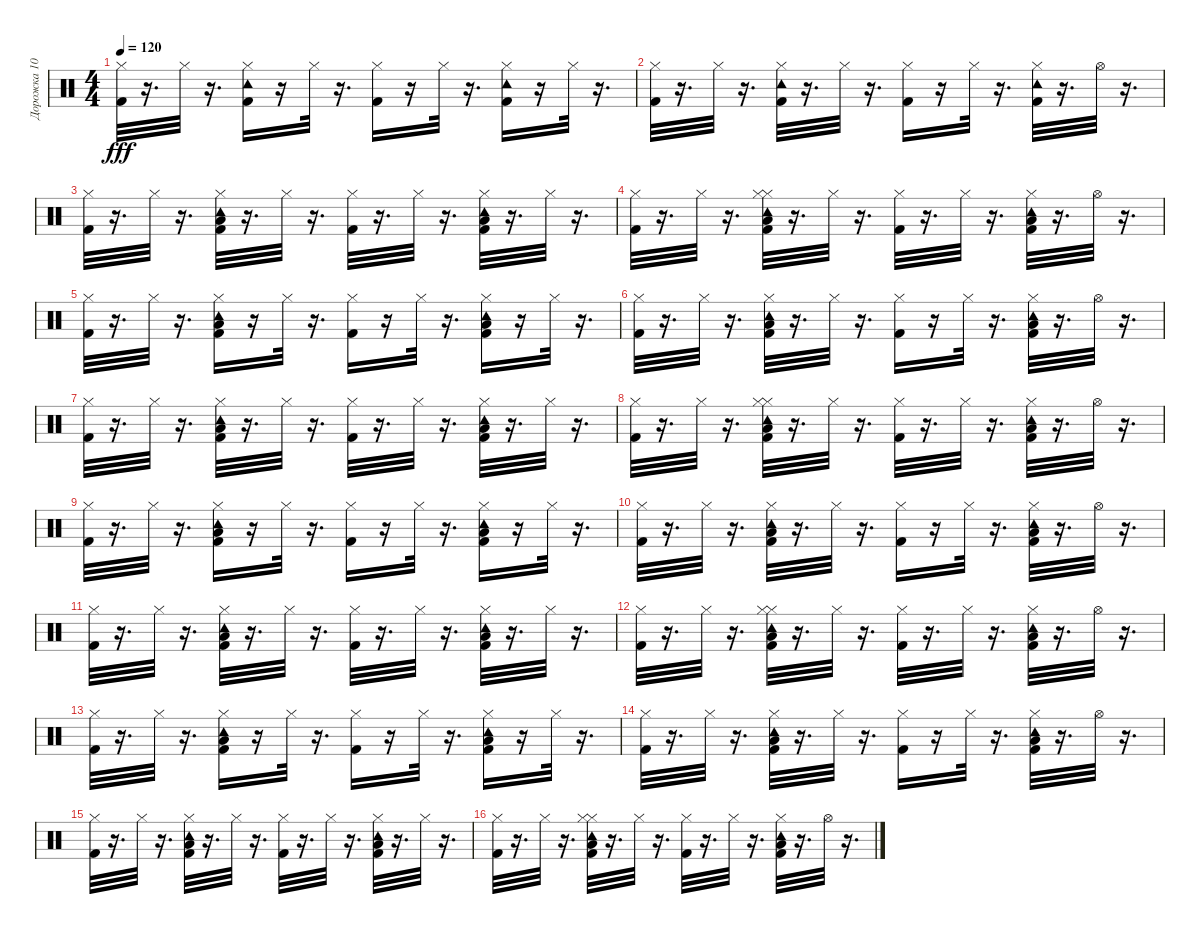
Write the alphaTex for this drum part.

\track ("Дорожка 10" "Дорожка 10") {instrument percussion}
\staff {score}
\articulation defaults
\ts (4 4)
\tempo 120
\clef neutral
\ks c
("Kick (hit) 2" "Hi-Hat (closed)").32{dy fff} r.16{d} "Hi-Hat (closed)".32 r.16{d} ("Tambourine (hit)" "Kick (hit) 2" "Hi-Hat (closed)").16 r.16 "Hi-Hat (closed)".32 r.16{d} ("Kick (hit) 2" "Hi-Hat (closed)").16 r.16 "Hi-Hat (closed)".32 r.16{d} ("Kick (hit) 2" "Hi-Hat (closed)" "Tambourine (hit)").16 r.16 "Hi-Hat (closed)".32 r.16{d} |
("Kick (hit) 2" "Hi-Hat (closed)").32 r.16{d} "Hi-Hat (closed)".32 r.16{d} ("Tambourine (hit)" "Kick (hit) 2" "Hi-Hat (closed)").32 r.16{d} "Hi-Hat (closed)".32 r.16{d} ("Kick (hit) 2" "Hi-Hat (closed)").16 r.16 "Hi-Hat (closed)".32 r.16{d} ("Tambourine (hit)" "Kick (hit) 2" "Hi-Hat (closed)").32 r.16{d} "Hi-Hat (open)".32 r.16{d} |
("Kick (hit) 2" "Hi-Hat (closed)").32 r.16{d} "Hi-Hat (closed)".32 r.16{d} ("Tambourine (hit)" "Kick (hit) 2" "Hi-Hat (closed)" "Low Floor Tom (hit)").32 r.16{d} "Hi-Hat (closed)".32 r.16{d} ("Kick (hit) 2" "Hi-Hat (closed)").32 r.16{d} "Hi-Hat (closed)".32 r.16{d} ("Tambourine (hit)" "Kick (hit) 2" "Hi-Hat (closed)" "Low Floor Tom (hit)").32 r.16{d} "Hi-Hat (closed)".32 r.16{d} |
("Kick (hit) 2" "Hi-Hat (closed)").32 r.16{d} "Hi-Hat (closed)".32 r.16{d} ("Low Floor Tom (hit)" "Tambourine (hit)" "Kick (hit) 2" "Hi-Hat (closed)" "Hi-Hat (closed)").32 r.16{d} "Hi-Hat (closed)".32 r.16{d} ("Kick (hit) 2" "Hi-Hat (closed)").32 r.16{d} "Hi-Hat (closed)".32 r.16{d} ("Low Floor Tom (hit)" "Tambourine (hit)" "Kick (hit) 2" "Hi-Hat (closed)").32 r.16{d} "Hi-Hat (open)".32 r.16{d} |
("Kick (hit) 2" "Hi-Hat (closed)").32 r.16{d} "Hi-Hat (closed)".32 r.16{d} ("Low Floor Tom (hit)" "Tambourine (hit)" "Kick (hit) 2" "Hi-Hat (closed)").16 r.16 "Hi-Hat (closed)".32 r.16{d} ("Kick (hit) 2" "Hi-Hat (closed)").16 r.16 "Hi-Hat (closed)".32 r.16{d} ("Low Floor Tom (hit)" "Tambourine (hit)" "Kick (hit) 2" "Hi-Hat (closed)").16 r.16 "Hi-Hat (closed)".32 r.16{d} |
("Kick (hit) 2" "Hi-Hat (closed)").32 r.16{d} "Hi-Hat (closed)".32 r.16{d} ("Low Floor Tom (hit)" "Tambourine (hit)" "Kick (hit) 2" "Hi-Hat (closed)").32 r.16{d} "Hi-Hat (closed)".32 r.16{d} ("Kick (hit) 2" "Hi-Hat (closed)").16 r.16 "Hi-Hat (closed)".32 r.16{d} ("Tambourine (hit)" "Kick (hit) 2" "Hi-Hat (closed)" "Low Floor Tom (hit)").32 r.16{d} "Hi-Hat (open)".32 r.16{d} |
("Kick (hit) 2" "Hi-Hat (closed)").32 r.16{d} "Hi-Hat (closed)".32 r.16{d} ("Tambourine (hit)" "Kick (hit) 2" "Hi-Hat (closed)" "Low Floor Tom (hit)").32 r.16{d} "Hi-Hat (closed)".32 r.16{d} ("Kick (hit) 2" "Hi-Hat (closed)").32 r.16{d} "Hi-Hat (closed)".32 r.16{d} ("Tambourine (hit)" "Kick (hit) 2" "Hi-Hat (closed)" "Low Floor Tom (hit)").32 r.16{d} "Hi-Hat (closed)".32 r.16{d} |
("Kick (hit) 2" "Hi-Hat (closed)").32 r.16{d} "Hi-Hat (closed)".32 r.16{d} ("Low Floor Tom (hit)" "Tambourine (hit)" "Kick (hit) 2" "Hi-Hat (closed)" "Hi-Hat (closed)").32 r.16{d} "Hi-Hat (closed)".32 r.16{d} ("Kick (hit) 2" "Hi-Hat (closed)").32 r.16{d} "Hi-Hat (closed)".32 r.16{d} ("Low Floor Tom (hit)" "Tambourine (hit)" "Kick (hit) 2" "Hi-Hat (closed)").32 r.16{d} "Hi-Hat (open)".32 r.16{d} |
("Kick (hit) 2" "Hi-Hat (closed)").32 r.16{d} "Hi-Hat (closed)".32 r.16{d} ("Low Floor Tom (hit)" "Tambourine (hit)" "Kick (hit) 2" "Hi-Hat (closed)").16 r.16 "Hi-Hat (closed)".32 r.16{d} ("Kick (hit) 2" "Hi-Hat (closed)").16 r.16 "Hi-Hat (closed)".32 r.16{d} ("Low Floor Tom (hit)" "Tambourine (hit)" "Kick (hit) 2" "Hi-Hat (closed)").16 r.16 "Hi-Hat (closed)".32 r.16{d} |
("Kick (hit) 2" "Hi-Hat (closed)").32 r.16{d} "Hi-Hat (closed)".32 r.16{d} ("Low Floor Tom (hit)" "Tambourine (hit)" "Kick (hit) 2" "Hi-Hat (closed)").32 r.16{d} "Hi-Hat (closed)".32 r.16{d} ("Kick (hit) 2" "Hi-Hat (closed)").16 r.16 "Hi-Hat (closed)".32 r.16{d} ("Tambourine (hit)" "Kick (hit) 2" "Hi-Hat (closed)" "Low Floor Tom (hit)").32 r.16{d} "Hi-Hat (open)".32 r.16{d} |
("Kick (hit) 2" "Hi-Hat (closed)").32 r.16{d} "Hi-Hat (closed)".32 r.16{d} ("Tambourine (hit)" "Kick (hit) 2" "Hi-Hat (closed)" "Low Floor Tom (hit)").32 r.16{d} "Hi-Hat (closed)".32 r.16{d} ("Kick (hit) 2" "Hi-Hat (closed)").32 r.16{d} "Hi-Hat (closed)".32 r.16{d} ("Tambourine (hit)" "Kick (hit) 2" "Hi-Hat (closed)" "Low Floor Tom (hit)").32 r.16{d} "Hi-Hat (closed)".32 r.16{d} |
("Kick (hit) 2" "Hi-Hat (closed)").32 r.16{d} "Hi-Hat (closed)".32 r.16{d} ("Low Floor Tom (hit)" "Tambourine (hit)" "Kick (hit) 2" "Hi-Hat (closed)" "Hi-Hat (closed)").32 r.16{d} "Hi-Hat (closed)".32 r.16{d} ("Kick (hit) 2" "Hi-Hat (closed)").32 r.16{d} "Hi-Hat (closed)".32 r.16{d} ("Low Floor Tom (hit)" "Tambourine (hit)" "Kick (hit) 2" "Hi-Hat (closed)").32 r.16{d} "Hi-Hat (open)".32 r.16{d} |
("Kick (hit) 2" "Hi-Hat (closed)").32 r.16{d} "Hi-Hat (closed)".32 r.16{d} ("Low Floor Tom (hit)" "Tambourine (hit)" "Kick (hit) 2" "Hi-Hat (closed)").16 r.16 "Hi-Hat (closed)".32 r.16{d} ("Kick (hit) 2" "Hi-Hat (closed)").16 r.16 "Hi-Hat (closed)".32 r.16{d} ("Low Floor Tom (hit)" "Tambourine (hit)" "Kick (hit) 2" "Hi-Hat (closed)").16 r.16 "Hi-Hat (closed)".32 r.16{d} |
("Kick (hit) 2" "Hi-Hat (closed)").32 r.16{d} "Hi-Hat (closed)".32 r.16{d} ("Low Floor Tom (hit)" "Tambourine (hit)" "Kick (hit) 2" "Hi-Hat (closed)").32 r.16{d} "Hi-Hat (closed)".32 r.16{d} ("Kick (hit) 2" "Hi-Hat (closed)").16 r.16 "Hi-Hat (closed)".32 r.16{d} ("Tambourine (hit)" "Kick (hit) 2" "Hi-Hat (closed)" "Low Floor Tom (hit)").32 r.16{d} "Hi-Hat (open)".32 r.16{d} |
("Kick (hit) 2" "Hi-Hat (closed)").32 r.16{d} "Hi-Hat (closed)".32 r.16{d} ("Tambourine (hit)" "Kick (hit) 2" "Hi-Hat (closed)" "Low Floor Tom (hit)").32 r.16{d} "Hi-Hat (closed)".32 r.16{d} ("Kick (hit) 2" "Hi-Hat (closed)").32 r.16{d} "Hi-Hat (closed)".32 r.16{d} ("Tambourine (hit)" "Kick (hit) 2" "Hi-Hat (closed)" "Low Floor Tom (hit)").32 r.16{d} "Hi-Hat (closed)".32 r.16{d} |
("Kick (hit) 2" "Hi-Hat (closed)").32 r.16{d} "Hi-Hat (closed)".32 r.16{d} ("Low Floor Tom (hit)" "Tambourine (hit)" "Kick (hit) 2" "Hi-Hat (closed)" "Hi-Hat (closed)").32 r.16{d} "Hi-Hat (closed)".32 r.16{d} ("Kick (hit) 2" "Hi-Hat (closed)").32 r.16{d} "Hi-Hat (closed)".32 r.16{d} ("Low Floor Tom (hit)" "Tambourine (hit)" "Kick (hit) 2" "Hi-Hat (closed)").32 r.16{d} "Hi-Hat (open)".32 r.16{d}
